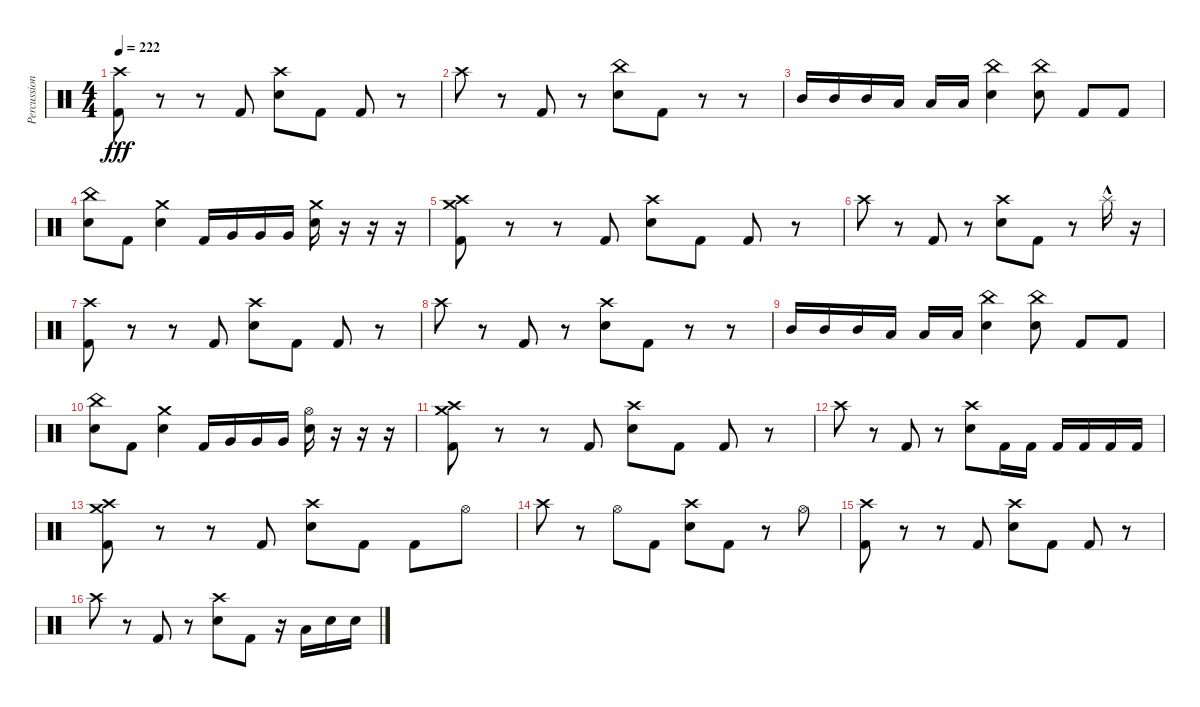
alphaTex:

\track ("Percussion" "Percussion") {instrument percussion}
\staff {score}
\articulation defaults
\ts (4 4)
\tempo 222
\clef neutral
\ks c
("Kick (hit) 2" "Crash high (hit)").8{dy fff} r.8 r.8 "Kick (hit) 2".8 ("Electric Snare (hit)" "Crash high (hit)").8 "Kick (hit) 2".8 "Kick (hit) 2".8 r.8 |
"Crash high (hit)".8 r.8 "Kick (hit) 2".8 r.8 ("Electric Snare (hit)" "China (hit)").8 "Kick (hit) 2".8 r.8 r.8 |
"Mid Tom (hit)".16 "Mid Tom (hit)".16 "Mid Tom (hit)".16 "Low Tom (hit)".16 "Low Tom (hit)".16 "Low Tom (hit)".16 ("Electric Snare (hit)" "China (hit)").4 ("Electric Snare (hit)" "China (hit)").8 "Kick (hit) 2".8 "Kick (hit) 2".8 |
("Electric Snare (hit)" "China (hit)").8 "Kick (hit) 2".8 ("Electric Snare (hit)" "Crash medium (hit)").4 "Kick (hit) 2".16 "Very Low Tom (hit)".16 "Very Low Tom (hit)".16 "Very Low Tom (hit)".16 ("Electric Snare (hit)" "Crash medium (hit)").16 r.16 r.16 r.16 |
("Kick (hit) 2" "Crash high (hit)" "Crash medium (hit)").8 r.8 r.8 "Kick (hit) 2".8 ("Electric Snare (hit)" "Crash high (hit)").8 "Kick (hit) 2".8 "Kick (hit) 2".8 r.8 |
"Crash high (hit)".8 r.8 "Kick (hit) 2".8 r.8 ("Electric Snare (hit)" "Crash high (hit)").8 "Kick (hit) 2".8 r.8 "Splash (hit)"{hac}.16 r.16 |
("Kick (hit) 2" "Crash high (hit)").8 r.8 r.8 "Kick (hit) 2".8 ("Electric Snare (hit)" "Crash high (hit)").8 "Kick (hit) 2".8 "Kick (hit) 2".8 r.8 |
"Crash high (hit)".8 r.8 "Kick (hit) 2".8 r.8 ("Electric Snare (hit)" "Crash high (hit)").8 "Kick (hit) 2".8 r.8 r.8 |
"Mid Tom (hit)".16 "Mid Tom (hit)".16 "Mid Tom (hit)".16 "Low Tom (hit)".16 "Low Tom (hit)".16 "Low Tom (hit)".16 ("Electric Snare (hit)" "China (hit)").4 ("Electric Snare (hit)" "China (hit)").8 "Kick (hit) 2".8 "Kick (hit) 2".8 |
("Electric Snare (hit)" "China (hit)").8 "Kick (hit) 2".8 ("Electric Snare (hit)" "Crash medium (hit)").4 "Kick (hit) 2".16 "Very Low Tom (hit)".16 "Very Low Tom (hit)".16 "Very Low Tom (hit)".16 ("Electric Snare (hit)" "Hi-Hat (open)").16 r.16 r.16 r.16 |
("Kick (hit) 2" "Crash medium (hit)" "Crash high (hit)").8 r.8 r.8 "Kick (hit) 2".8 ("Electric Snare (hit)" "Crash high (hit)").8 "Kick (hit) 2".8 "Kick (hit) 2".8 r.8 |
"Crash high (hit)".8 r.8 "Kick (hit) 2".8 r.8 ("Electric Snare (hit)" "Crash high (hit)").8 "Kick (hit) 2".16 "Kick (hit) 2".16 "Kick (hit) 2".16 "Kick (hit) 2".16 "Kick (hit) 2".16 "Kick (hit) 2".16 |
("Kick (hit) 2" "Crash medium (hit)" "Crash high (hit)").8 r.8 r.8 "Kick (hit) 2".8 ("Electric Snare (hit)" "Crash high (hit)").8 "Kick (hit) 2".8 "Kick (hit) 2".8 "Hi-Hat (open)".8 |
"Crash high (hit)".8 r.8 "Hi-Hat (open)".8 "Kick (hit) 2".8 ("Electric Snare (hit)" "Crash high (hit)").8 "Kick (hit) 2".8 r.8 "Hi-Hat (open)".8 |
("Kick (hit) 2" "Crash high (hit)").8 r.8 r.8 "Kick (hit) 2".8 ("Electric Snare (hit)" "Crash high (hit)").8 "Kick (hit) 2".8 "Kick (hit) 2".8 r.8 |
"Crash high (hit)".8 r.8 "Kick (hit) 2".8 r.8 ("Electric Snare (hit)" "Crash high (hit)").8 "Kick (hit) 2".8 r.16 "Low Floor Tom (hit)".16 "Electric Snare (hit)".16 "Electric Snare (hit)".16
